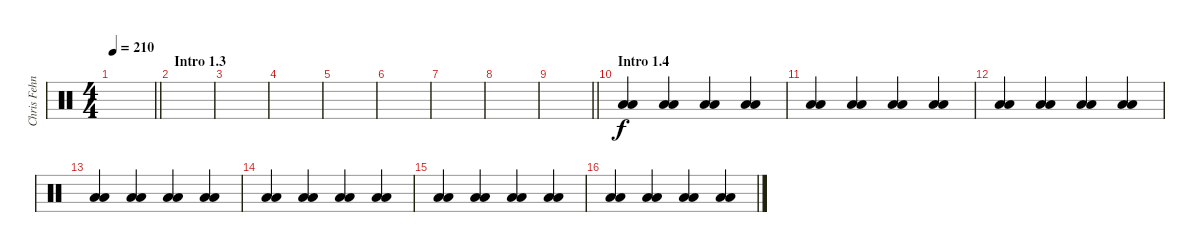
\track ("Chris Fehn" "Chris Fehn") {instrument percussion}
\staff {score}
\articulation defaults
\ts (4 4)
\tempo 210
\clef neutral
\barLineRight lightlight
\ks c
|
\section ("" "Intro 1.3")
|
|
|
|
|
|
|
\barLineRight lightlight
|
\section ("" "Intro 1.4")
("Low Floor Tom (hit)" "Low Floor Tom (hit)").4 ("Low Floor Tom (hit)" "Low Floor Tom (hit)").4 ("Low Floor Tom (hit)" "Low Floor Tom (hit)").4 ("Low Floor Tom (hit)" "Low Floor Tom (hit)").4 |
("Low Floor Tom (hit)" "Low Floor Tom (hit)").4 ("Low Floor Tom (hit)" "Low Floor Tom (hit)").4 ("Low Floor Tom (hit)" "Low Floor Tom (hit)").4 ("Low Floor Tom (hit)" "Low Floor Tom (hit)").4 |
("Low Floor Tom (hit)" "Low Floor Tom (hit)").4 ("Low Floor Tom (hit)" "Low Floor Tom (hit)").4 ("Low Floor Tom (hit)" "Low Floor Tom (hit)").4 ("Low Floor Tom (hit)" "Low Floor Tom (hit)").4 |
("Low Floor Tom (hit)" "Low Floor Tom (hit)").4 ("Low Floor Tom (hit)" "Low Floor Tom (hit)").4 ("Low Floor Tom (hit)" "Low Floor Tom (hit)").4 ("Low Floor Tom (hit)" "Low Floor Tom (hit)").4 |
("Low Floor Tom (hit)" "Low Floor Tom (hit)").4 ("Low Floor Tom (hit)" "Low Floor Tom (hit)").4 ("Low Floor Tom (hit)" "Low Floor Tom (hit)").4 ("Low Floor Tom (hit)" "Low Floor Tom (hit)").4 |
("Low Floor Tom (hit)" "Low Floor Tom (hit)").4 ("Low Floor Tom (hit)" "Low Floor Tom (hit)").4 ("Low Floor Tom (hit)" "Low Floor Tom (hit)").4 ("Low Floor Tom (hit)" "Low Floor Tom (hit)").4 |
("Low Floor Tom (hit)" "Low Floor Tom (hit)").4 ("Low Floor Tom (hit)" "Low Floor Tom (hit)").4 ("Low Floor Tom (hit)" "Low Floor Tom (hit)").4 ("Low Floor Tom (hit)" "Low Floor Tom (hit)").4
